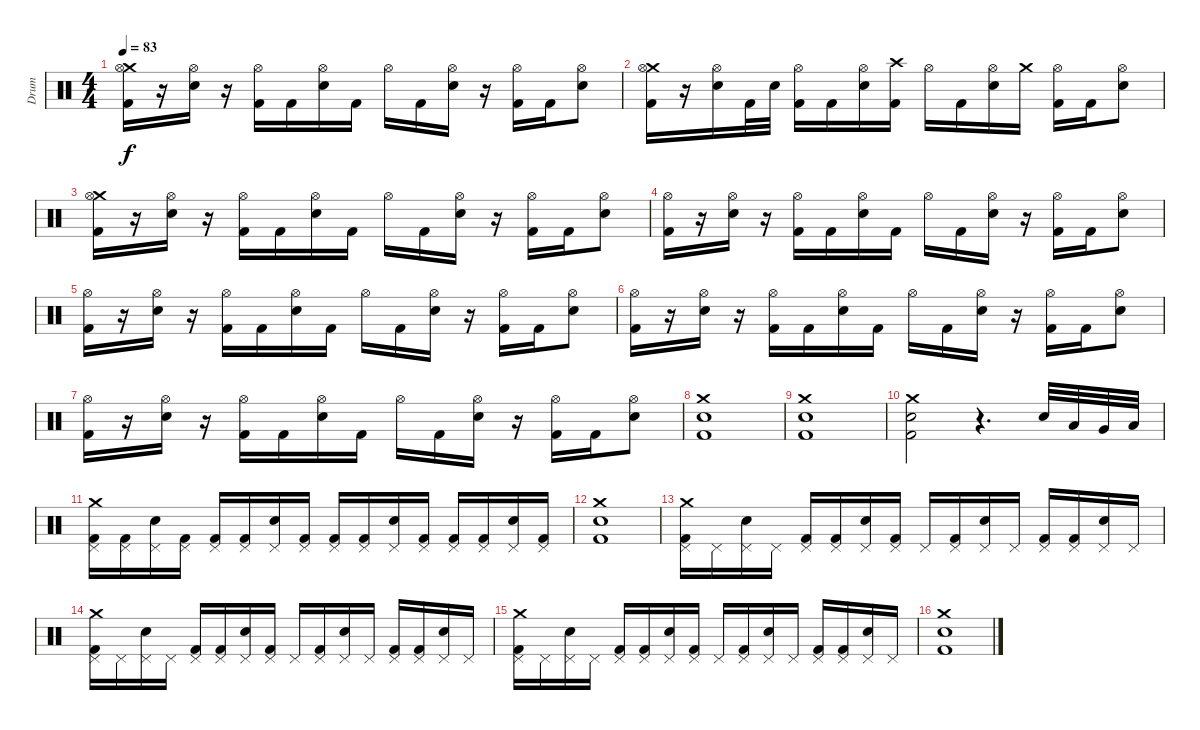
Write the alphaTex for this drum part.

\track ("Drum" "Drum") {instrument percussion}
\staff {score}
\articulation defaults
\ts (4 4)
\tempo 83
\clef neutral
\ks c
("Crash medium (hit)" "Hi-Hat (open)" "Kick (hit) 2").16{dy f} r.16 ("Hi-Hat (open)" "Snare (hit) 2").16 r.16 ("Hi-Hat (open)" "Kick (hit) 2").16 "Kick (hit) 2".16 ("Hi-Hat (open)" "Snare (hit) 2").16 "Kick (hit) 2".16 "Hi-Hat (open)".16 "Kick (hit) 2".16 ("Hi-Hat (open)" "Snare (hit) 2").16 r.16 ("Hi-Hat (open)" "Kick (hit) 2").16 "Kick (hit) 2".16 ("Hi-Hat (open)" "Snare (hit) 2").8 |
("Crash medium (hit)" "Hi-Hat (open)" "Kick (hit) 2").16 r.16 ("Hi-Hat (open)" "Snare (hit) 2").16 "Kick (hit) 2".32 "Snare (hit) 2".32 ("Hi-Hat (open)" "Kick (hit) 2").16 "Kick (hit) 2".16 ("Hi-Hat (open)" "Snare (hit) 2").16 ("Crash high (hit)" "Kick (hit) 2").16 "Hi-Hat (open)".16 "Kick (hit) 2".16 ("Hi-Hat (open)" "Snare (hit) 2").16 "Crash medium (hit)".16 ("Hi-Hat (open)" "Kick (hit) 2").16 "Kick (hit) 2".16 ("Hi-Hat (open)" "Snare (hit) 2").8 |
("Crash medium (hit)" "Hi-Hat (open)" "Kick (hit) 2").16 r.16 ("Hi-Hat (open)" "Snare (hit) 2").16 r.16 ("Hi-Hat (open)" "Kick (hit) 2").16 "Kick (hit) 2".16 ("Hi-Hat (open)" "Snare (hit) 2").16 "Kick (hit) 2".16 "Hi-Hat (open)".16 "Kick (hit) 2".16 ("Hi-Hat (open)" "Snare (hit) 2").16 r.16 ("Hi-Hat (open)" "Kick (hit) 2").16 "Kick (hit) 2".16 ("Hi-Hat (open)" "Snare (hit) 2").8 |
("Hi-Hat (open)" "Kick (hit) 2").16 r.16 ("Hi-Hat (open)" "Snare (hit) 2").16 r.16 ("Hi-Hat (open)" "Kick (hit) 2").16 "Kick (hit) 2".16 ("Hi-Hat (open)" "Snare (hit) 2").16 "Kick (hit) 2".16 "Hi-Hat (open)".16 "Kick (hit) 2".16 ("Hi-Hat (open)" "Snare (hit) 2").16 r.16 ("Hi-Hat (open)" "Kick (hit) 2").16 "Kick (hit) 2".16 ("Hi-Hat (open)" "Snare (hit) 2").8 |
("Hi-Hat (open)" "Kick (hit) 2").16 r.16 ("Hi-Hat (open)" "Snare (hit) 2").16 r.16 ("Hi-Hat (open)" "Kick (hit) 2").16 "Kick (hit) 2".16 ("Hi-Hat (open)" "Snare (hit) 2").16 "Kick (hit) 2".16 "Hi-Hat (open)".16 "Kick (hit) 2".16 ("Hi-Hat (open)" "Snare (hit) 2").16 r.16 ("Hi-Hat (open)" "Kick (hit) 2").16 "Kick (hit) 2".16 ("Hi-Hat (open)" "Snare (hit) 2").8 |
("Hi-Hat (open)" "Kick (hit) 2").16 r.16 ("Hi-Hat (open)" "Snare (hit) 2").16 r.16 ("Hi-Hat (open)" "Kick (hit) 2").16 "Kick (hit) 2".16 ("Hi-Hat (open)" "Snare (hit) 2").16 "Kick (hit) 2".16 "Hi-Hat (open)".16 "Kick (hit) 2".16 ("Hi-Hat (open)" "Snare (hit) 2").16 r.16 ("Hi-Hat (open)" "Kick (hit) 2").16 "Kick (hit) 2".16 ("Hi-Hat (open)" "Snare (hit) 2").8 |
("Hi-Hat (open)" "Kick (hit) 2").16 r.16 ("Hi-Hat (open)" "Snare (hit) 2").16 r.16 ("Hi-Hat (open)" "Kick (hit) 2").16 "Kick (hit) 2".16 ("Hi-Hat (open)" "Snare (hit) 2").16 "Kick (hit) 2".16 "Hi-Hat (open)".16 "Kick (hit) 2".16 ("Hi-Hat (open)" "Snare (hit) 2").16 r.16 ("Hi-Hat (open)" "Kick (hit) 2").16 "Kick (hit) 2".16 ("Hi-Hat (open)" "Snare (hit) 2").8 |
("Crash medium (hit)" "Snare (hit) 2" "Kick (hit) 2").1 |
("Crash medium (hit)" "Snare (hit) 2" "Kick (hit) 2").1 |
("Crash medium (hit)" "Snare (hit) 2" "Kick (hit) 2").2 r.4{d} "Snare (hit) 2".32 "Low Tom (hit)".32 "Very Low Tom (hit)".32 "Low Floor Tom (hit)".32 |
("Crash medium (hit)" "Pedal Hi-Hat (hit)" "Kick (hit) 2").16 ("Pedal Hi-Hat (hit)" "Kick (hit) 2").16 ("Snare (hit) 2" "Pedal Hi-Hat (hit)").16 ("Pedal Hi-Hat (hit)" "Kick (hit) 2").16 ("Pedal Hi-Hat (hit)" "Kick (hit) 2").16 ("Pedal Hi-Hat (hit)" "Kick (hit) 2").16 ("Snare (hit) 2" "Pedal Hi-Hat (hit)").16 ("Pedal Hi-Hat (hit)" "Kick (hit) 2").16 ("Pedal Hi-Hat (hit)" "Kick (hit) 2").16 ("Pedal Hi-Hat (hit)" "Kick (hit) 2").16 ("Snare (hit) 2" "Pedal Hi-Hat (hit)").16 ("Pedal Hi-Hat (hit)" "Kick (hit) 2").16 ("Pedal Hi-Hat (hit)" "Kick (hit) 2").16 ("Pedal Hi-Hat (hit)" "Kick (hit) 2").16 ("Snare (hit) 2" "Pedal Hi-Hat (hit)").16 ("Pedal Hi-Hat (hit)" "Kick (hit) 2").16 |
("Crash medium (hit)" "Snare (hit) 2" "Kick (hit) 2").1 |
("Crash medium (hit)" "Pedal Hi-Hat (hit)" "Kick (hit) 2").16 "Pedal Hi-Hat (hit)".16 ("Snare (hit) 2" "Pedal Hi-Hat (hit)").16 "Pedal Hi-Hat (hit)".16 ("Pedal Hi-Hat (hit)" "Kick (hit) 2").16 ("Pedal Hi-Hat (hit)" "Kick (hit) 2").16 ("Snare (hit) 2" "Pedal Hi-Hat (hit)").16 ("Pedal Hi-Hat (hit)" "Kick (hit) 2").16 "Pedal Hi-Hat (hit)".16 ("Pedal Hi-Hat (hit)" "Kick (hit) 2").16 ("Snare (hit) 2" "Pedal Hi-Hat (hit)").16 "Pedal Hi-Hat (hit)".16 ("Pedal Hi-Hat (hit)" "Kick (hit) 2").16 ("Pedal Hi-Hat (hit)" "Kick (hit) 2").16 ("Snare (hit) 2" "Pedal Hi-Hat (hit)").16 "Pedal Hi-Hat (hit)".16 |
("Crash medium (hit)" "Pedal Hi-Hat (hit)" "Kick (hit) 2").16 "Pedal Hi-Hat (hit)".16 ("Snare (hit) 2" "Pedal Hi-Hat (hit)").16 "Pedal Hi-Hat (hit)".16 ("Pedal Hi-Hat (hit)" "Kick (hit) 2").16 ("Pedal Hi-Hat (hit)" "Kick (hit) 2").16 ("Snare (hit) 2" "Pedal Hi-Hat (hit)").16 ("Pedal Hi-Hat (hit)" "Kick (hit) 2").16 "Pedal Hi-Hat (hit)".16 ("Pedal Hi-Hat (hit)" "Kick (hit) 2").16 ("Snare (hit) 2" "Pedal Hi-Hat (hit)").16 "Pedal Hi-Hat (hit)".16 ("Pedal Hi-Hat (hit)" "Kick (hit) 2").16 ("Pedal Hi-Hat (hit)" "Kick (hit) 2").16 ("Snare (hit) 2" "Pedal Hi-Hat (hit)").16 "Pedal Hi-Hat (hit)".16 |
("Crash medium (hit)" "Pedal Hi-Hat (hit)" "Kick (hit) 2").16 "Pedal Hi-Hat (hit)".16 ("Snare (hit) 2" "Pedal Hi-Hat (hit)").16 "Pedal Hi-Hat (hit)".16 ("Pedal Hi-Hat (hit)" "Kick (hit) 2").16 ("Pedal Hi-Hat (hit)" "Kick (hit) 2").16 ("Snare (hit) 2" "Pedal Hi-Hat (hit)").16 ("Pedal Hi-Hat (hit)" "Kick (hit) 2").16 "Pedal Hi-Hat (hit)".16 ("Pedal Hi-Hat (hit)" "Kick (hit) 2").16 ("Snare (hit) 2" "Pedal Hi-Hat (hit)").16 "Pedal Hi-Hat (hit)".16 ("Pedal Hi-Hat (hit)" "Kick (hit) 2").16 ("Pedal Hi-Hat (hit)" "Kick (hit) 2").16 ("Snare (hit) 2" "Pedal Hi-Hat (hit)").16 "Pedal Hi-Hat (hit)".16 |
("Crash medium (hit)" "Snare (hit) 2" "Kick (hit) 2").1
